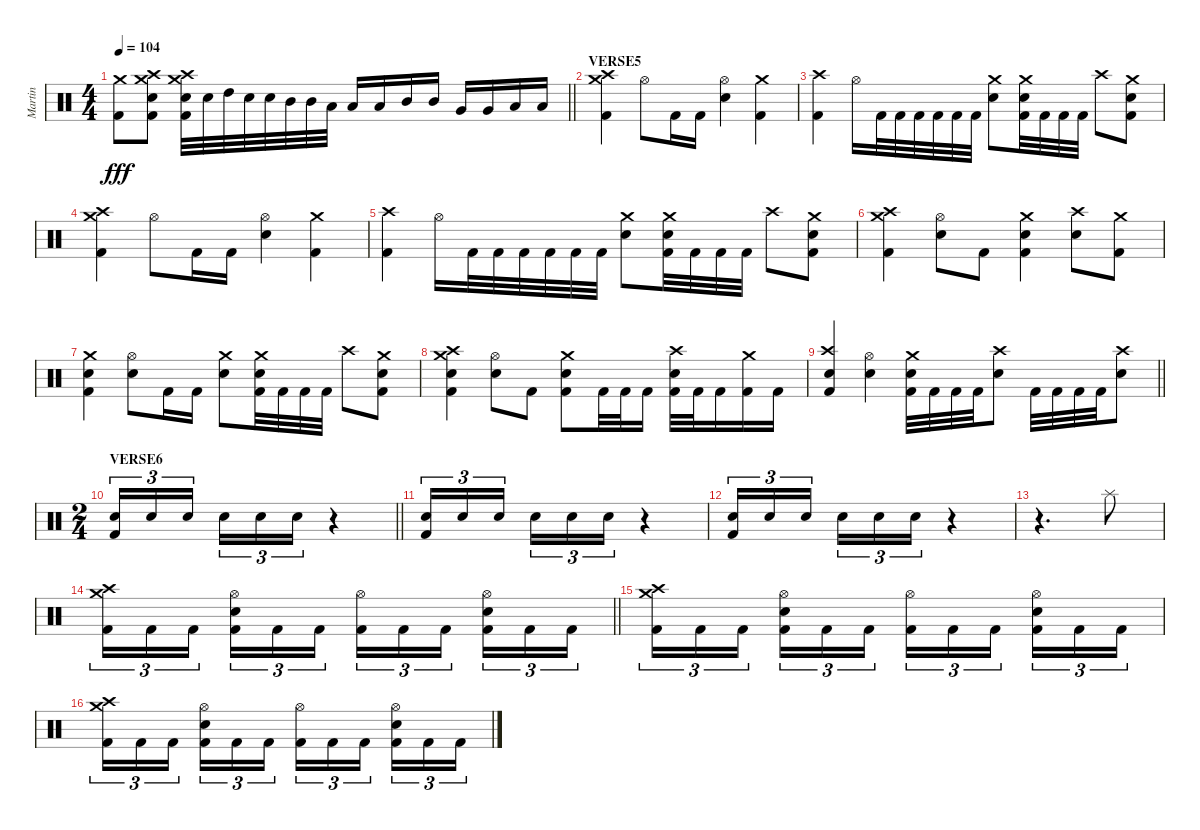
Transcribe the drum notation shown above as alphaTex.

\track ("Martin" "Martin") {instrument percussion}
\staff {score}
\articulation defaults
\ts (4 4)
\tempo 104
\clef neutral
\barLineRight lightlight
\ks c
("Crash medium (hit)" "Kick (hit) 2").8{dy fff} ("Crash high (hit)" "Crash medium (hit)" "Electric Snare (hit)" "Kick (hit) 2").8 ("Crash high (hit)" "Crash medium (hit)" "Electric Snare (hit)" "Kick (hit) 2").32 "Electric Snare (hit)".32 "High Tom (hit)".32 "Electric Snare (hit)".32 "Electric Snare (hit)".32 "Mid Tom (hit)".32 "Mid Tom (hit)".32 "Low Tom (hit)".32 "Low Tom (hit)".16 "Low Tom (hit)".16 "Mid Tom (hit)".16 "Mid Tom (hit)".16 "Very Low Tom (hit)".16 "Very Low Tom (hit)".16 "Low Floor Tom (hit)".16 "Low Floor Tom (hit)".16 |
\section ("" "VERSE5")
("Crash high (hit)" "Crash medium (hit)" "Kick (hit) 2").4 "Hi-Hat (open)".8 "Kick (hit) 2".16 "Kick (hit) 2".16 ("Hi-Hat (open)" "Electric Snare (hit)").4 ("Crash medium (hit)" "Kick (hit) 2").4 |
("Crash high (hit)" "Kick (hit) 2").4 "Hi-Hat (open)".16 "Kick (hit) 2".32 "Kick (hit) 2".32 "Kick (hit) 2".32 "Kick (hit) 2".32 "Kick (hit) 2".32 "Kick (hit) 2".32 ("Crash medium (hit)" "Electric Snare (hit)").8 ("Crash medium (hit)" "Electric Snare (hit)" "Kick (hit) 2").32 "Kick (hit) 2".32 "Kick (hit) 2".32 "Kick (hit) 2".32 "Crash high (hit)".8 ("Crash medium (hit)" "Electric Snare (hit)" "Kick (hit) 2").8 |
("Crash high (hit)" "Crash medium (hit)" "Kick (hit) 2").4 "Hi-Hat (open)".8 "Kick (hit) 2".16 "Kick (hit) 2".16 ("Hi-Hat (open)" "Electric Snare (hit)").4 ("Crash medium (hit)" "Kick (hit) 2").4 |
("Crash high (hit)" "Kick (hit) 2").4 "Hi-Hat (open)".16 "Kick (hit) 2".32 "Kick (hit) 2".32 "Kick (hit) 2".32 "Kick (hit) 2".32 "Kick (hit) 2".32 "Kick (hit) 2".32 ("Crash medium (hit)" "Electric Snare (hit)").8 ("Crash medium (hit)" "Electric Snare (hit)" "Kick (hit) 2").32 "Kick (hit) 2".32 "Kick (hit) 2".32 "Kick (hit) 2".32 "Crash high (hit)".8 ("Crash medium (hit)" "Electric Snare (hit)" "Kick (hit) 2").8 |
("Crash high (hit)" "Crash medium (hit)" "Kick (hit) 2").4 ("Hi-Hat (open)" "Electric Snare (hit)").8 "Kick (hit) 2".8 ("Crash medium (hit)" "Electric Snare (hit)" "Kick (hit) 2").4 ("Crash high (hit)" "Electric Snare (hit)").8 ("Crash medium (hit)" "Kick (hit) 2").8 |
("Crash medium (hit)" "Electric Snare (hit)" "Kick (hit) 2").4 ("Hi-Hat (open)" "Electric Snare (hit)").8 "Kick (hit) 2".16 "Kick (hit) 2".16 ("Crash medium (hit)" "Electric Snare (hit)").8 ("Crash medium (hit)" "Electric Snare (hit)" "Kick (hit) 2").32 "Kick (hit) 2".32 "Kick (hit) 2".32 "Kick (hit) 2".32 "Crash high (hit)".8 ("Crash medium (hit)" "Electric Snare (hit)" "Kick (hit) 2").8 |
("Crash high (hit)" "Crash medium (hit)" "Electric Snare (hit)" "Kick (hit) 2").4 ("Hi-Hat (open)" "Electric Snare (hit)").8 "Kick (hit) 2".8 ("Crash medium (hit)" "Electric Snare (hit)" "Kick (hit) 2").8 "Kick (hit) 2".32 "Kick (hit) 2".32 "Kick (hit) 2".16 ("Crash high (hit)" "Electric Snare (hit)" "Kick (hit) 2").32 "Kick (hit) 2".32 "Kick (hit) 2".16 ("Crash medium (hit)" "Kick (hit) 2").16 "Kick (hit) 2".16 |
\barLineRight lightlight
("Crash high (hit)" "Electric Snare (hit)" "Kick (hit) 2").4 ("Hi-Hat (open)" "Electric Snare (hit)").4 ("Crash medium (hit)" "Electric Snare (hit)" "Kick (hit) 2").32 "Kick (hit) 2".32 "Kick (hit) 2".32 "Kick (hit) 2".32 ("Crash high (hit)" "Electric Snare (hit)").8 "Kick (hit) 2".32 "Kick (hit) 2".32 "Kick (hit) 2".32 "Kick (hit) 2".32 ("Crash high (hit)" "Electric Snare (hit)").8 |
\ts (2 4)
\section ("" "VERSE6")
\barLineRight lightlight
("Electric Snare (hit)" "Kick (hit) 2").16{tu (3 2)} "Electric Snare (hit)".16{tu (3 2)} "Electric Snare (hit)".16{tu (3 2) beam splitsecondary} "Electric Snare (hit)".16{tu (3 2)} "Electric Snare (hit)".16{tu (3 2)} "Electric Snare (hit)".16{tu (3 2)} r.4 |
("Electric Snare (hit)" "Kick (hit) 2").16{tu (3 2)} "Electric Snare (hit)".16{tu (3 2)} "Electric Snare (hit)".16{tu (3 2) beam splitsecondary} "Electric Snare (hit)".16{tu (3 2)} "Electric Snare (hit)".16{tu (3 2)} "Electric Snare (hit)".16{tu (3 2)} r.4 |
("Electric Snare (hit)" "Kick (hit) 2").16{tu (3 2)} "Electric Snare (hit)".16{tu (3 2)} "Electric Snare (hit)".16{tu (3 2) beam splitsecondary} "Electric Snare (hit)".16{tu (3 2)} "Electric Snare (hit)".16{tu (3 2)} "Electric Snare (hit)".16{tu (3 2)} r.4 |
r.4{d} "Splash (hit)".8 |
\barLineRight lightlight
("Crash high (hit)" "Crash medium (hit)" "Kick (hit) 2").16{tu (3 2)} "Kick (hit) 2".16{tu (3 2)} "Kick (hit) 2".16{tu (3 2) beam splitsecondary} ("Hi-Hat (open)" "Electric Snare (hit)" "Kick (hit) 2").16{tu (3 2)} "Kick (hit) 2".16{tu (3 2)} "Kick (hit) 2".16{tu (3 2)} ("Hi-Hat (open)" "Kick (hit) 2").16{tu (3 2)} "Kick (hit) 2".16{tu (3 2)} "Kick (hit) 2".16{tu (3 2) beam splitsecondary} ("Hi-Hat (open)" "Electric Snare (hit)" "Kick (hit) 2").16{tu (3 2)} "Kick (hit) 2".16{tu (3 2)} "Kick (hit) 2".16{tu (3 2)} |
("Crash high (hit)" "Crash medium (hit)" "Kick (hit) 2").16{tu (3 2)} "Kick (hit) 2".16{tu (3 2)} "Kick (hit) 2".16{tu (3 2) beam splitsecondary} ("Hi-Hat (open)" "Electric Snare (hit)" "Kick (hit) 2").16{tu (3 2)} "Kick (hit) 2".16{tu (3 2)} "Kick (hit) 2".16{tu (3 2)} ("Hi-Hat (open)" "Kick (hit) 2").16{tu (3 2)} "Kick (hit) 2".16{tu (3 2)} "Kick (hit) 2".16{tu (3 2) beam splitsecondary} ("Hi-Hat (open)" "Electric Snare (hit)" "Kick (hit) 2").16{tu (3 2)} "Kick (hit) 2".16{tu (3 2)} "Kick (hit) 2".16{tu (3 2)} |
("Crash high (hit)" "Crash medium (hit)" "Kick (hit) 2").16{tu (3 2)} "Kick (hit) 2".16{tu (3 2)} "Kick (hit) 2".16{tu (3 2) beam splitsecondary} ("Hi-Hat (open)" "Electric Snare (hit)" "Kick (hit) 2").16{tu (3 2)} "Kick (hit) 2".16{tu (3 2)} "Kick (hit) 2".16{tu (3 2)} ("Hi-Hat (open)" "Kick (hit) 2").16{tu (3 2)} "Kick (hit) 2".16{tu (3 2)} "Kick (hit) 2".16{tu (3 2) beam splitsecondary} ("Hi-Hat (open)" "Electric Snare (hit)" "Kick (hit) 2").16{tu (3 2)} "Kick (hit) 2".16{tu (3 2)} "Kick (hit) 2".16{tu (3 2)}
